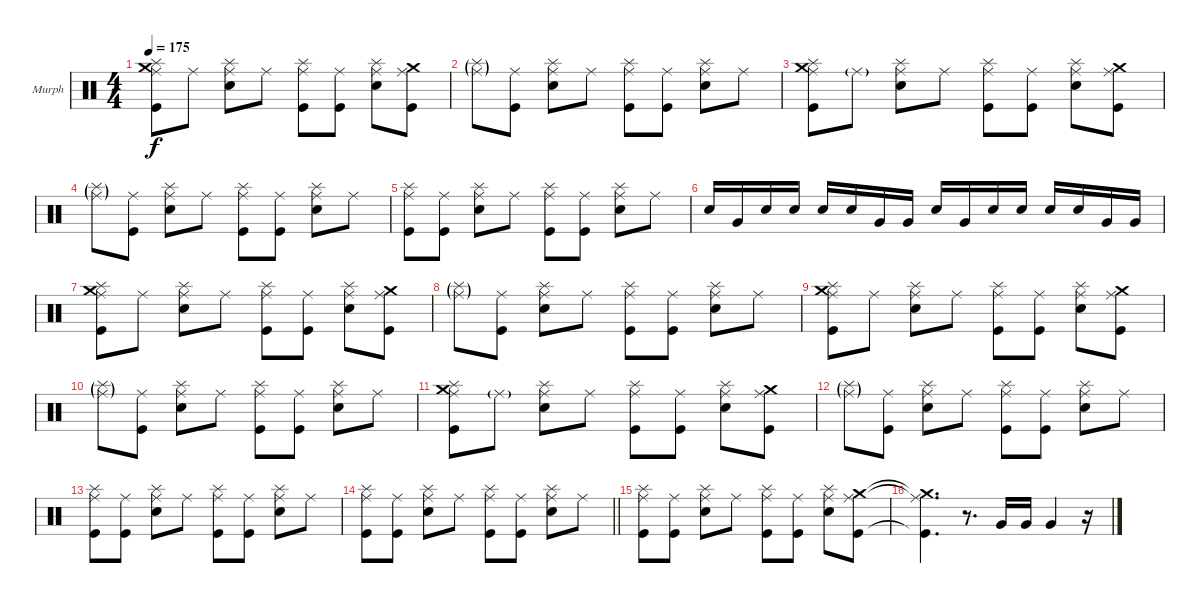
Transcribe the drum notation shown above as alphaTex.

\defaultSystemsLayout 4
\bracketExtendMode groupsimilarinstruments
\firstSystemTrackNameOrientation horizontal
\otherSystemsTrackNameOrientation horizontal
\track ("Murph" "Murph") {instrument percussion}
\staff {score}
\articulation defaults
\ts (4 4)
\tempo 175
\clef neutral
\scale
0.333333
\ks c
("Kick (hit)" "Ride (middle)" "Splash (hit)" "Crash medium (hit)").8{dy f} "Ride (middle)".8 ("Snare (hit) 2" "Ride (middle)" "Splash (hit)").8 "Ride (middle)".8 ("Kick (hit)" "Ride (middle)" "Splash (hit)").8 ("Kick (hit)" "Ride (middle)").8 ("Snare (hit) 2" "Ride (middle)" "Splash (hit)").8 ("Kick (hit)" "Ride (middle)" "Crash medium (hit)").8 |
\scale
0.333333 ("Ride (middle)"{g} "Splash (hit)"{g}).8 ("Kick (hit)" "Ride (middle)").8 ("Snare (hit) 2" "Ride (middle)" "Splash (hit)").8 "Ride (middle)".8 ("Kick (hit)" "Ride (middle)" "Splash (hit)").8 ("Kick (hit)" "Ride (middle)").8 ("Snare (hit) 2" "Ride (middle)" "Splash (hit)").8 "Ride (middle)".8 |
\scale
0.333333 ("Kick (hit)" "Ride (middle)" "Splash (hit)" "Crash medium (hit)").8 "Ride (middle)"{g}.8 ("Snare (hit) 2" "Ride (middle)" "Splash (hit)").8 "Ride (middle)".8 ("Kick (hit)" "Ride (middle)" "Splash (hit)").8 ("Kick (hit)" "Ride (middle)").8 ("Snare (hit) 2" "Ride (middle)" "Splash (hit)").8 ("Kick (hit)" "Ride (middle)" "Crash medium (hit)").8 |
\scale
0.333333 ("Ride (middle)"{g} "Splash (hit)"{g}).8 ("Kick (hit)" "Ride (middle)").8 ("Snare (hit) 2" "Ride (middle)" "Splash (hit)").8 "Ride (middle)".8 ("Kick (hit)" "Ride (middle)" "Splash (hit)").8 ("Kick (hit)" "Ride (middle)").8 ("Snare (hit) 2" "Ride (middle)" "Splash (hit)").8 "Ride (middle)".8 |
\scale
0.333333 ("Kick (hit)" "Ride (middle)" "Splash (hit)").8 ("Kick (hit)" "Ride (middle)").8 ("Snare (hit) 2" "Ride (middle)" "Splash (hit)").8 "Ride (middle)".8 ("Kick (hit)" "Ride (middle)" "Splash (hit)").8 ("Kick (hit)" "Ride (middle)").8 ("Snare (hit) 2" "Ride (middle)" "Splash (hit)").8 "Ride (middle)".8 |
\scale
0.333333 "Snare (hit) 2".16 "Very Low Tom (hit)".16 "Snare (hit) 2".16 "Snare (hit) 2".16 "Snare (hit) 2".16 "Snare (hit) 2".16 "Very Low Tom (hit)".16 "Very Low Tom (hit)".16 "Snare (hit) 2".16 "Very Low Tom (hit)".16 "Snare (hit) 2".16 "Snare (hit) 2".16 "Snare (hit) 2".16 "Snare (hit) 2".16 "Very Low Tom (hit)".16 "Very Low Tom (hit)".16 |
\scale
0.333333 ("Kick (hit)" "Ride (middle)" "Splash (hit)" "Crash medium (hit)").8 "Ride (middle)".8 ("Snare (hit) 2" "Ride (middle)" "Splash (hit)").8 "Ride (middle)".8 ("Kick (hit)" "Ride (middle)" "Splash (hit)").8 ("Kick (hit)" "Ride (middle)").8 ("Snare (hit) 2" "Ride (middle)" "Splash (hit)").8 ("Kick (hit)" "Ride (middle)" "Crash medium (hit)").8 |
\scale
0.333333 ("Ride (middle)"{g} "Splash (hit)"{g}).8 ("Kick (hit)" "Ride (middle)").8 ("Snare (hit) 2" "Ride (middle)" "Splash (hit)").8 "Ride (middle)".8 ("Kick (hit)" "Ride (middle)" "Splash (hit)").8 ("Kick (hit)" "Ride (middle)").8 ("Snare (hit) 2" "Ride (middle)" "Splash (hit)").8 "Ride (middle)".8 |
\scale
0.333333 ("Kick (hit)" "Ride (middle)" "Splash (hit)" "Crash medium (hit)").8 "Ride (middle)".8 ("Snare (hit) 2" "Ride (middle)" "Splash (hit)").8 "Ride (middle)".8 ("Kick (hit)" "Ride (middle)" "Splash (hit)").8 ("Kick (hit)" "Ride (middle)").8 ("Snare (hit) 2" "Ride (middle)" "Splash (hit)").8 ("Kick (hit)" "Ride (middle)" "Crash medium (hit)").8 |
\scale
0.333333 ("Ride (middle)"{g} "Splash (hit)"{g}).8 ("Kick (hit)" "Ride (middle)").8 ("Snare (hit) 2" "Ride (middle)" "Splash (hit)").8 "Ride (middle)".8 ("Kick (hit)" "Ride (middle)" "Splash (hit)").8 ("Kick (hit)" "Ride (middle)").8 ("Snare (hit) 2" "Ride (middle)" "Splash (hit)").8 "Ride (middle)".8 |
\scale
0.333333 ("Kick (hit)" "Ride (middle)" "Splash (hit)" "Crash medium (hit)").8 "Ride (middle)"{g}.8 ("Snare (hit) 2" "Ride (middle)" "Splash (hit)").8 "Ride (middle)".8 ("Kick (hit)" "Ride (middle)" "Splash (hit)").8 ("Kick (hit)" "Ride (middle)").8 ("Snare (hit) 2" "Ride (middle)" "Splash (hit)").8 ("Kick (hit)" "Ride (middle)" "Crash medium (hit)").8 |
\scale
0.333333 ("Ride (middle)"{g} "Splash (hit)"{g}).8 ("Kick (hit)" "Ride (middle)").8 ("Snare (hit) 2" "Ride (middle)" "Splash (hit)").8 "Ride (middle)".8 ("Kick (hit)" "Ride (middle)" "Splash (hit)").8 ("Kick (hit)" "Ride (middle)").8 ("Snare (hit) 2" "Ride (middle)" "Splash (hit)").8 "Ride (middle)".8 |
\scale
0.333333 ("Kick (hit)" "Ride (middle)" "Splash (hit)").8 ("Kick (hit)" "Ride (middle)").8 ("Snare (hit) 2" "Ride (middle)" "Splash (hit)").8 "Ride (middle)".8 ("Kick (hit)" "Ride (middle)" "Splash (hit)").8 ("Kick (hit)" "Ride (middle)").8 ("Snare (hit) 2" "Ride (middle)" "Splash (hit)").8 "Ride (middle)".8 |
\scale
0.333333
\barLineRight lightlight
("Kick (hit)" "Ride (middle)" "Splash (hit)").8 ("Kick (hit)" "Ride (middle)").8 ("Snare (hit) 2" "Ride (middle)" "Splash (hit)").8 "Ride (middle)".8 ("Kick (hit)" "Ride (middle)" "Splash (hit)").8 ("Kick (hit)" "Ride (middle)").8 ("Snare (hit) 2" "Ride (middle)" "Splash (hit)").8 "Ride (middle)".8 |
\scale
0.333333 ("Kick (hit)" "Ride (middle)" "Splash (hit)").8 ("Kick (hit)" "Ride (middle)").8 ("Snare (hit) 2" "Ride (middle)" "Splash (hit)").8 "Ride (middle)".8 ("Kick (hit)" "Ride (middle)" "Splash (hit)").8 ("Kick (hit)" "Ride (middle)").8 ("Snare (hit) 2" "Ride (middle)" "Splash (hit)").8 ("Kick (hit)" "Ride (middle)" "Crash medium (hit)").8 |
\scale
0.333333 ("Kick (hit)"{t} "Ride (middle)"{t} "Crash medium (hit)"{t}).4{d} r.8{d} "Very Low Tom (hit)".16 "Very Low Tom (hit)".16 "Very Low Tom (hit)".4 r.16
